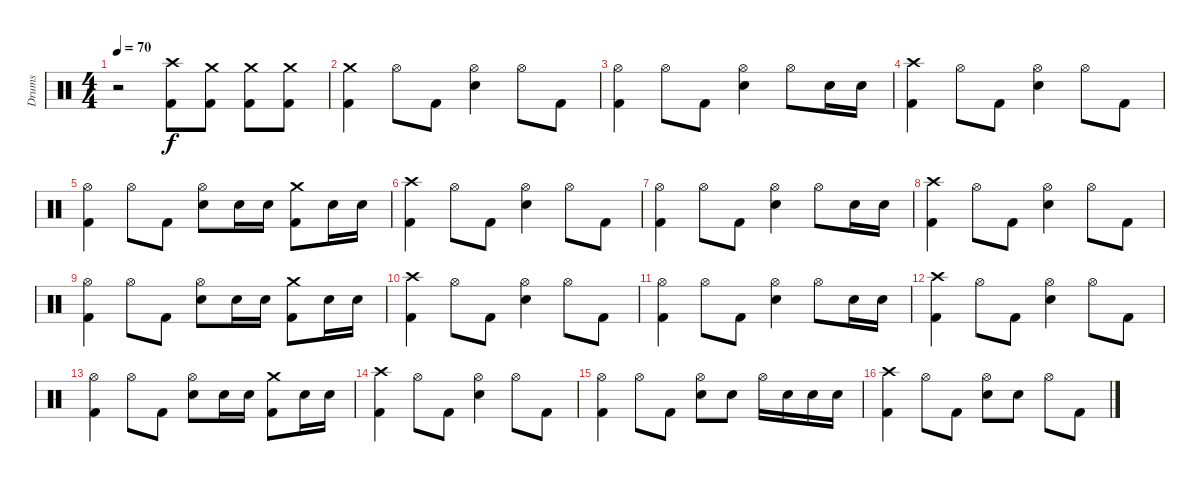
\track ("Drums" "Drums") {instrument percussion}
\staff {score}
\articulation defaults
\ts (4 4)
\tempo 70
\clef neutral
\ks c
r.2{dy f} ("Crash high (hit)" "Kick (hit) 2").8 ("Crash medium (hit)" "Kick (hit) 2").8 ("Crash medium (hit)" "Kick (hit) 2").8 ("Crash medium (hit)" "Kick (hit) 2").8 |
("Crash medium (hit)" "Kick (hit) 2").4 "Hi-Hat (open)".8 "Kick (hit) 2".8 ("Hi-Hat (open)" "Electric Snare (hit)").4 "Hi-Hat (open)".8 "Kick (hit) 2".8 |
("Hi-Hat (open)" "Kick (hit) 2").4 "Hi-Hat (open)".8 "Kick (hit) 2".8 ("Hi-Hat (open)" "Electric Snare (hit)").4 "Hi-Hat (open)".8 "Electric Snare (hit)".16 "Electric Snare (hit)".16 |
("Crash high (hit)" "Kick (hit) 2").4 "Hi-Hat (open)".8 "Kick (hit) 2".8 ("Hi-Hat (open)" "Electric Snare (hit)").4 "Hi-Hat (open)".8 "Kick (hit) 2".8 |
("Hi-Hat (open)" "Kick (hit) 2").4 "Hi-Hat (open)".8 "Kick (hit) 2".8 ("Hi-Hat (open)" "Electric Snare (hit)").8 "Electric Snare (hit)".16 "Electric Snare (hit)".16 ("Crash medium (hit)" "Kick (hit) 2").8 "Electric Snare (hit)".16 "Electric Snare (hit)".16 |
("Crash high (hit)" "Kick (hit) 2").4 "Hi-Hat (open)".8 "Kick (hit) 2".8 ("Hi-Hat (open)" "Electric Snare (hit)").4 "Hi-Hat (open)".8 "Kick (hit) 2".8 |
("Hi-Hat (open)" "Kick (hit) 2").4 "Hi-Hat (open)".8 "Kick (hit) 2".8 ("Hi-Hat (open)" "Electric Snare (hit)").4 "Hi-Hat (open)".8 "Electric Snare (hit)".16 "Electric Snare (hit)".16 |
("Crash high (hit)" "Kick (hit) 2").4 "Hi-Hat (open)".8 "Kick (hit) 2".8 ("Hi-Hat (open)" "Electric Snare (hit)").4 "Hi-Hat (open)".8 "Kick (hit) 2".8 |
("Hi-Hat (open)" "Kick (hit) 2").4 "Hi-Hat (open)".8 "Kick (hit) 2".8 ("Hi-Hat (open)" "Electric Snare (hit)").8 "Electric Snare (hit)".16 "Electric Snare (hit)".16 ("Crash medium (hit)" "Kick (hit) 2").8 "Electric Snare (hit)".16 "Electric Snare (hit)".16 |
("Crash high (hit)" "Kick (hit) 2").4 "Hi-Hat (open)".8 "Kick (hit) 2".8 ("Hi-Hat (open)" "Electric Snare (hit)").4 "Hi-Hat (open)".8 "Kick (hit) 2".8 |
("Hi-Hat (open)" "Kick (hit) 2").4 "Hi-Hat (open)".8 "Kick (hit) 2".8 ("Hi-Hat (open)" "Electric Snare (hit)").4 "Hi-Hat (open)".8 "Electric Snare (hit)".16 "Electric Snare (hit)".16 |
("Crash high (hit)" "Kick (hit) 2").4 "Hi-Hat (open)".8 "Kick (hit) 2".8 ("Hi-Hat (open)" "Electric Snare (hit)").4 "Hi-Hat (open)".8 "Kick (hit) 2".8 |
("Hi-Hat (open)" "Kick (hit) 2").4 "Hi-Hat (open)".8 "Kick (hit) 2".8 ("Hi-Hat (open)" "Electric Snare (hit)").8 "Electric Snare (hit)".16 "Electric Snare (hit)".16 ("Crash medium (hit)" "Kick (hit) 2").8 "Electric Snare (hit)".16 "Electric Snare (hit)".16 |
("Crash high (hit)" "Kick (hit) 2").4 "Hi-Hat (open)".8 "Kick (hit) 2".8 ("Hi-Hat (open)" "Electric Snare (hit)").4 "Hi-Hat (open)".8 "Kick (hit) 2".8 |
("Hi-Hat (open)" "Kick (hit) 2").4 "Hi-Hat (open)".8 "Kick (hit) 2".8 ("Hi-Hat (open)" "Electric Snare (hit)").8 "Electric Snare (hit)".8 "Hi-Hat (open)".16 "Electric Snare (hit)".16 "Electric Snare (hit)".16 "Electric Snare (hit)".16 |
("Crash high (hit)" "Kick (hit) 2").4 "Hi-Hat (open)".8 "Kick (hit) 2".8 ("Hi-Hat (open)" "Electric Snare (hit)").8 "Electric Snare (hit)".8 "Hi-Hat (open)".8 "Kick (hit) 2".8
